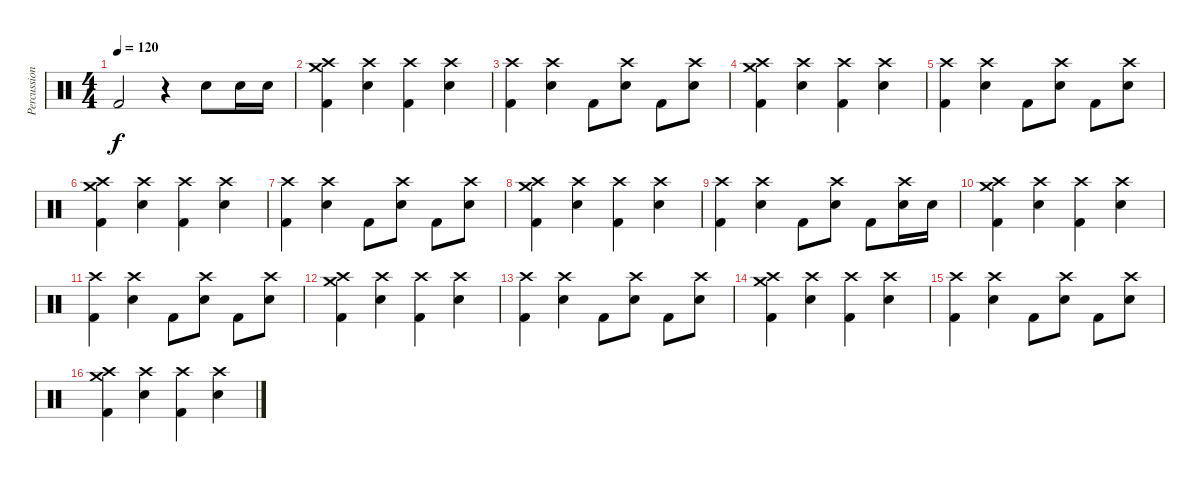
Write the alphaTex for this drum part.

\track ("Percussion" "Percussion") {instrument percussion}
\staff {score}
\articulation defaults
\ts (4 4)
\tempo 120
\clef neutral
\ks c "Kick (hit) 2".2{dy f}
r.4 "Snare (hit) 2".8 "Snare (hit) 2".16 "Snare (hit) 2".16 |
("Kick (hit) 2" "Crash high (hit)" "Crash medium (hit)").4 ("Snare (hit) 2" "Crash high (hit)").4 ("Kick (hit) 2" "Crash high (hit)").4 ("Snare (hit) 2" "Crash high (hit)").4 |
("Kick (hit) 2" "Crash high (hit)").4 ("Snare (hit) 2" "Crash high (hit)").4 "Kick (hit) 2".8 ("Snare (hit) 2" "Crash high (hit)").8 "Kick (hit) 2".8 ("Snare (hit) 2" "Crash high (hit)").8 |
("Kick (hit) 2" "Crash high (hit)" "Crash medium (hit)").4 ("Snare (hit) 2" "Crash high (hit)").4 ("Kick (hit) 2" "Crash high (hit)").4 ("Snare (hit) 2" "Crash high (hit)").4 |
("Kick (hit) 2" "Crash high (hit)").4 ("Snare (hit) 2" "Crash high (hit)").4 "Kick (hit) 2".8 ("Snare (hit) 2" "Crash high (hit)").8 "Kick (hit) 2".8 ("Snare (hit) 2" "Crash high (hit)").8 |
("Kick (hit) 2" "Crash high (hit)" "Crash medium (hit)").4 ("Snare (hit) 2" "Crash high (hit)").4 ("Kick (hit) 2" "Crash high (hit)").4 ("Snare (hit) 2" "Crash high (hit)").4 |
("Kick (hit) 2" "Crash high (hit)").4 ("Snare (hit) 2" "Crash high (hit)").4 "Kick (hit) 2".8 ("Snare (hit) 2" "Crash high (hit)").8 "Kick (hit) 2".8 ("Snare (hit) 2" "Crash high (hit)").8 |
("Kick (hit) 2" "Crash high (hit)" "Crash medium (hit)").4 ("Snare (hit) 2" "Crash high (hit)").4 ("Kick (hit) 2" "Crash high (hit)").4 ("Snare (hit) 2" "Crash high (hit)").4 |
("Kick (hit) 2" "Crash high (hit)").4 ("Snare (hit) 2" "Crash high (hit)").4 "Kick (hit) 2".8 ("Snare (hit) 2" "Crash high (hit)").8 "Kick (hit) 2".8 ("Snare (hit) 2" "Crash high (hit)").16 "Snare (hit) 2".16 |
("Kick (hit) 2" "Crash high (hit)" "Crash medium (hit)").4 ("Snare (hit) 2" "Crash high (hit)").4 ("Kick (hit) 2" "Crash high (hit)").4 ("Snare (hit) 2" "Crash high (hit)").4 |
("Kick (hit) 2" "Crash high (hit)").4 ("Snare (hit) 2" "Crash high (hit)").4 "Kick (hit) 2".8 ("Snare (hit) 2" "Crash high (hit)").8 "Kick (hit) 2".8 ("Snare (hit) 2" "Crash high (hit)").8 |
("Kick (hit) 2" "Crash high (hit)" "Crash medium (hit)").4 ("Snare (hit) 2" "Crash high (hit)").4 ("Kick (hit) 2" "Crash high (hit)").4 ("Snare (hit) 2" "Crash high (hit)").4 |
("Kick (hit) 2" "Crash high (hit)").4 ("Snare (hit) 2" "Crash high (hit)").4 "Kick (hit) 2".8 ("Snare (hit) 2" "Crash high (hit)").8 "Kick (hit) 2".8 ("Snare (hit) 2" "Crash high (hit)").8 |
("Kick (hit) 2" "Crash high (hit)" "Crash medium (hit)").4 ("Snare (hit) 2" "Crash high (hit)").4 ("Kick (hit) 2" "Crash high (hit)").4 ("Snare (hit) 2" "Crash high (hit)").4 |
("Kick (hit) 2" "Crash high (hit)").4 ("Snare (hit) 2" "Crash high (hit)").4 "Kick (hit) 2".8 ("Snare (hit) 2" "Crash high (hit)").8 "Kick (hit) 2".8 ("Snare (hit) 2" "Crash high (hit)").8 |
("Kick (hit) 2" "Crash high (hit)" "Crash medium (hit)").4 ("Snare (hit) 2" "Crash high (hit)").4 ("Kick (hit) 2" "Crash high (hit)").4 ("Snare (hit) 2" "Crash high (hit)").4
